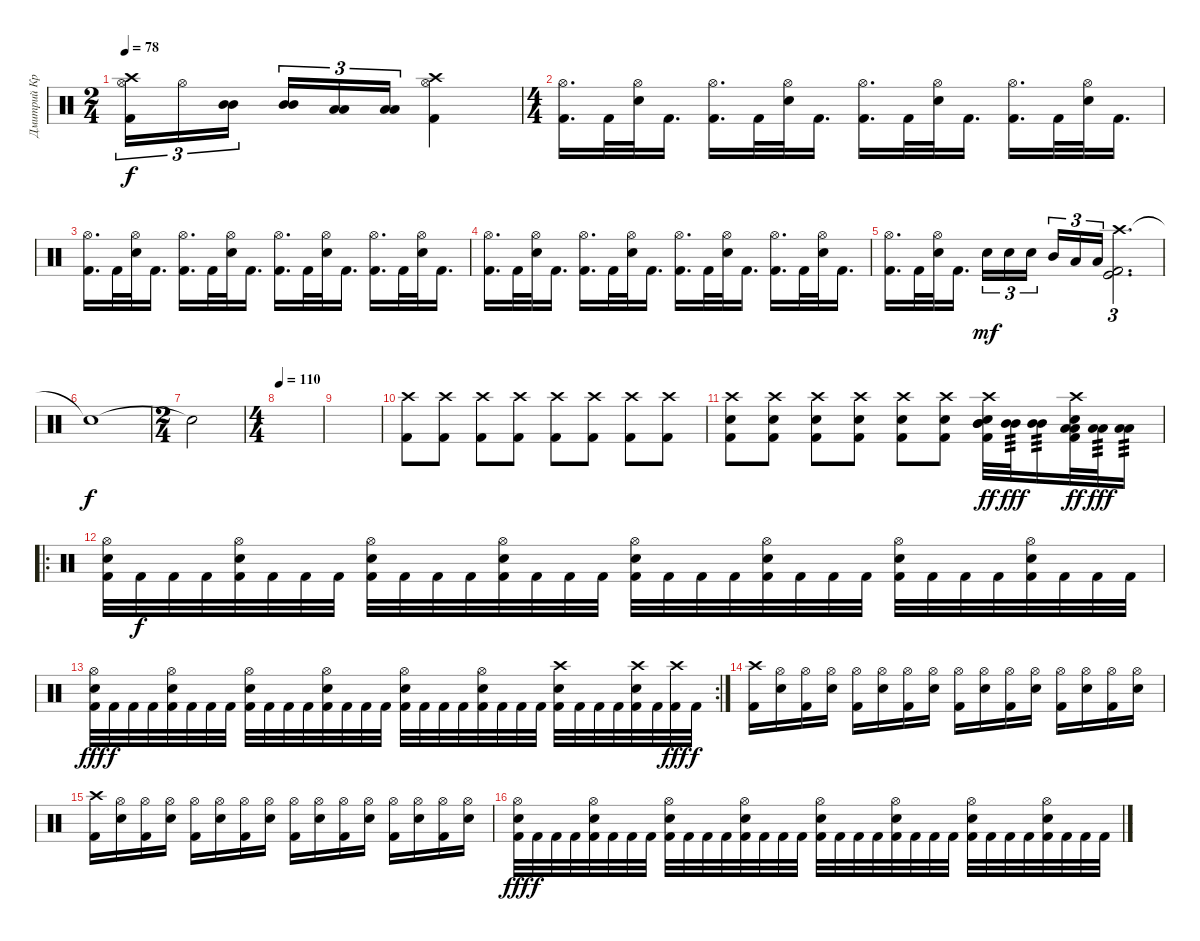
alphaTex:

\track ("Дмитрий Кривенков" "Дмитрий Кр") {instrument percussion}
\staff {score}
\articulation defaults
\ts (2 4)
\tempo 78
\clef neutral
\ks c
("Crash high (hit)" "Hi-Hat (open)" "Kick (hit) 2").16{tu (3 2) dy f} "Hi-Hat (open)".16{tu (3 2)} ("Mid Tom (hit)" "Mid Tom (hit)").16{tu (3 2) beam splitsecondary} ("Mid Tom (hit)" "Mid Tom (hit)").16{tu (3 2)} ("Low Tom (hit)" "Low Tom (hit)").16{tu (3 2)} ("Low Tom (hit)" "Low Tom (hit)").16{tu (3 2)} ("Crash high (hit)" "Hi-Hat (open)" "Kick (hit) 2").4 |
\ts (4 4)
("Hi-Hat (open)" "Kick (hit) 2").16{d} "Kick (hit) 2".32 ("Hi-Hat (open)" "Electric Snare (hit)").32 "Kick (hit) 2".16{d} ("Hi-Hat (open)" "Kick (hit) 2").16{d} "Kick (hit) 2".32 ("Hi-Hat (open)" "Electric Snare (hit)").32 "Kick (hit) 2".16{d} ("Hi-Hat (open)" "Kick (hit) 2").16{d} "Kick (hit) 2".32 ("Hi-Hat (open)" "Electric Snare (hit)").32 "Kick (hit) 2".16{d} ("Hi-Hat (open)" "Kick (hit) 2").16{d} "Kick (hit) 2".32 ("Hi-Hat (open)" "Electric Snare (hit)").32 "Kick (hit) 2".16{d} |
("Hi-Hat (open)" "Kick (hit) 2").16{d} "Kick (hit) 2".32 ("Hi-Hat (open)" "Electric Snare (hit)").32 "Kick (hit) 2".16{d} ("Hi-Hat (open)" "Kick (hit) 2").16{d} "Kick (hit) 2".32 ("Hi-Hat (open)" "Electric Snare (hit)").32 "Kick (hit) 2".16{d} ("Hi-Hat (open)" "Kick (hit) 2").16{d} "Kick (hit) 2".32 ("Hi-Hat (open)" "Electric Snare (hit)").32 "Kick (hit) 2".16{d} ("Hi-Hat (open)" "Kick (hit) 2").16{d} "Kick (hit) 2".32 ("Hi-Hat (open)" "Electric Snare (hit)").32 "Kick (hit) 2".16{d} |
("Hi-Hat (open)" "Kick (hit) 2").16{d} "Kick (hit) 2".32 ("Hi-Hat (open)" "Electric Snare (hit)").32 "Kick (hit) 2".16{d} ("Hi-Hat (open)" "Kick (hit) 2").16{d} "Kick (hit) 2".32 ("Hi-Hat (open)" "Electric Snare (hit)").32 "Kick (hit) 2".16{d} ("Hi-Hat (open)" "Kick (hit) 2").16{d} "Kick (hit) 2".32 ("Hi-Hat (open)" "Electric Snare (hit)").32 "Kick (hit) 2".16{d} ("Hi-Hat (open)" "Kick (hit) 2").16{d} "Kick (hit) 2".32 ("Hi-Hat (open)" "Electric Snare (hit)").32 "Kick (hit) 2".16{d} |
("Hi-Hat (open)" "Kick (hit) 2").16{d} "Kick (hit) 2".32 ("Hi-Hat (open)" "Electric Snare (hit)").32 "Kick (hit) 2".16{d} "Electric Snare (hit)".16{tu (3 2) dy mf} "Electric Snare (hit)".16{tu (3 2)} "Electric Snare (hit)".16{tu (3 2) beam splitsecondary} "Mid Tom (hit)".16{tu (3 2)} "Low Tom (hit)".16{tu (3 2)} "Low Tom (hit)".16{tu (3 2)} ("Crash high (hit)" "Kick (hit)" "Kick (hit) 2").2{d tu (3 2)} |
"Snare (hit)"{t}.1{dy f} |
\ts (2 4)
"Snare (hit)"{t}.2 |
\ts (4 4)
\tempo 110
|
|
("Crash high (hit)" "Kick (hit) 2").8{volume 11} ("Crash high (hit)" "Kick (hit) 2").8 ("Crash high (hit)" "Kick (hit) 2").8 ("Crash high (hit)" "Kick (hit) 2").8 ("Crash high (hit)" "Kick (hit) 2").8 ("Crash high (hit)" "Kick (hit) 2").8 ("Crash high (hit)" "Kick (hit) 2").8 ("Crash high (hit)" "Kick (hit) 2").8 |
("Crash high (hit)" "Electric Snare (hit)" "Kick (hit) 2").8 ("Crash high (hit)" "Electric Snare (hit)" "Kick (hit) 2").8 ("Crash high (hit)" "Electric Snare (hit)" "Kick (hit) 2").8 ("Crash high (hit)" "Electric Snare (hit)" "Kick (hit) 2").8 ("Crash high (hit)" "Electric Snare (hit)" "Kick (hit) 2").8 ("Crash high (hit)" "Electric Snare (hit)" "Kick (hit) 2").8 ("Crash high (hit)" "Mid Tom (hit)" "Electric Snare (hit)" "Mid Tom (hit)" "Kick (hit) 2").32{dy ff} ("Mid Tom (hit)" "Mid Tom (hit)").32{tp 3 dy fff} ("Mid Tom (hit)" "Mid Tom (hit)").16{tp 3} ("Crash high (hit)" "Low Tom (hit)" "Electric Snare (hit)" "Low Tom (hit)" "Kick (hit) 2").32{dy ff} ("Low Tom (hit)" "Low Tom (hit)").32{tp 3 dy fff} ("Low Tom (hit)" "Low Tom (hit)").16{tp 3} |
\ro
("Hi-Hat (open)" "Electric Snare (hit)" "Kick (hit) 2").32 "Kick (hit) 2".32{dy f} "Kick (hit) 2".32 "Kick (hit) 2".32 ("Hi-Hat (open)" "Electric Snare (hit)" "Kick (hit) 2").32 "Kick (hit) 2".32 "Kick (hit) 2".32 "Kick (hit) 2".32 ("Hi-Hat (open)" "Electric Snare (hit)" "Kick (hit) 2").32 "Kick (hit) 2".32 "Kick (hit) 2".32 "Kick (hit) 2".32 ("Hi-Hat (open)" "Electric Snare (hit)" "Kick (hit) 2").32 "Kick (hit) 2".32 "Kick (hit) 2".32 "Kick (hit) 2".32 ("Hi-Hat (open)" "Electric Snare (hit)" "Kick (hit) 2").32 "Kick (hit) 2".32 "Kick (hit) 2".32 "Kick (hit) 2".32 ("Hi-Hat (open)" "Electric Snare (hit)" "Kick (hit) 2").32 "Kick (hit) 2".32 "Kick (hit) 2".32 "Kick (hit) 2".32 ("Hi-Hat (open)" "Electric Snare (hit)" "Kick (hit) 2").32 "Kick (hit) 2".32 "Kick (hit) 2".32 "Kick (hit) 2".32 ("Hi-Hat (open)" "Electric Snare (hit)" "Kick (hit) 2").32 "Kick (hit) 2".32 "Kick (hit) 2".32 "Kick (hit) 2".32 |
\rc 2
("Hi-Hat (open)" "Electric Snare (hit)" "Kick (hit) 2").32{dy fff} "Kick (hit) 2".32{dy f} "Kick (hit) 2".32 "Kick (hit) 2".32 ("Hi-Hat (open)" "Electric Snare (hit)" "Kick (hit) 2").32 "Kick (hit) 2".32 "Kick (hit) 2".32 "Kick (hit) 2".32 ("Hi-Hat (open)" "Electric Snare (hit)" "Kick (hit) 2").32 "Kick (hit) 2".32 "Kick (hit) 2".32 "Kick (hit) 2".32 ("Hi-Hat (open)" "Electric Snare (hit)" "Kick (hit) 2").32 "Kick (hit) 2".32 "Kick (hit) 2".32 "Kick (hit) 2".32 ("Hi-Hat (open)" "Electric Snare (hit)" "Kick (hit) 2").32 "Kick (hit) 2".32 "Kick (hit) 2".32 "Kick (hit) 2".32 ("Hi-Hat (open)" "Electric Snare (hit)" "Kick (hit) 2").32 "Kick (hit) 2".32 "Kick (hit) 2".32 "Kick (hit) 2".32 ("Crash high (hit)" "Electric Snare (hit)" "Kick (hit) 2").32 "Kick (hit) 2".32 "Kick (hit) 2".32 "Kick (hit) 2".32 ("Crash high (hit)" "Electric Snare (hit)" "Kick (hit) 2").32 "Kick (hit) 2".32 ("Crash high (hit)" "Kick (hit) 2").32{dy fff} "Kick (hit) 2".32{dy f} |
("Crash high (hit)" "Kick (hit) 2").16 ("Hi-Hat (open)" "Electric Snare (hit)").16 ("Hi-Hat (open)" "Kick (hit) 2").16 ("Hi-Hat (open)" "Electric Snare (hit)").16 ("Hi-Hat (open)" "Kick (hit) 2").16 ("Hi-Hat (open)" "Electric Snare (hit)").16 ("Hi-Hat (open)" "Kick (hit) 2").16 ("Hi-Hat (open)" "Electric Snare (hit)").16 ("Hi-Hat (open)" "Kick (hit) 2").16 ("Hi-Hat (open)" "Electric Snare (hit)").16 ("Hi-Hat (open)" "Kick (hit) 2").16 ("Hi-Hat (open)" "Electric Snare (hit)").16 ("Hi-Hat (open)" "Kick (hit) 2").16 ("Hi-Hat (open)" "Electric Snare (hit)").16 ("Hi-Hat (open)" "Kick (hit) 2").16 ("Hi-Hat (open)" "Electric Snare (hit)").16 |
("Crash high (hit)" "Kick (hit) 2").16 ("Hi-Hat (open)" "Electric Snare (hit)").16 ("Hi-Hat (open)" "Kick (hit) 2").16 ("Hi-Hat (open)" "Electric Snare (hit)").16 ("Hi-Hat (open)" "Kick (hit) 2").16 ("Hi-Hat (open)" "Electric Snare (hit)").16 ("Hi-Hat (open)" "Kick (hit) 2").16 ("Hi-Hat (open)" "Electric Snare (hit)").16 ("Hi-Hat (open)" "Kick (hit) 2").16 ("Hi-Hat (open)" "Electric Snare (hit)").16 ("Hi-Hat (open)" "Kick (hit) 2").16 ("Hi-Hat (open)" "Electric Snare (hit)").16 ("Hi-Hat (open)" "Kick (hit) 2").16 ("Hi-Hat (open)" "Electric Snare (hit)").16 ("Hi-Hat (open)" "Kick (hit) 2").16 ("Hi-Hat (open)" "Electric Snare (hit)").16 |
("Hi-Hat (open)" "Electric Snare (hit)" "Kick (hit) 2").32{dy fff} "Kick (hit) 2".32{dy f} "Kick (hit) 2".32 "Kick (hit) 2".32 ("Hi-Hat (open)" "Electric Snare (hit)" "Kick (hit) 2").32 "Kick (hit) 2".32 "Kick (hit) 2".32 "Kick (hit) 2".32 ("Hi-Hat (open)" "Electric Snare (hit)" "Kick (hit) 2").32 "Kick (hit) 2".32 "Kick (hit) 2".32 "Kick (hit) 2".32 ("Hi-Hat (open)" "Electric Snare (hit)" "Kick (hit) 2").32 "Kick (hit) 2".32 "Kick (hit) 2".32 "Kick (hit) 2".32 ("Hi-Hat (open)" "Electric Snare (hit)" "Kick (hit) 2").32 "Kick (hit) 2".32 "Kick (hit) 2".32 "Kick (hit) 2".32 ("Hi-Hat (open)" "Electric Snare (hit)" "Kick (hit) 2").32 "Kick (hit) 2".32 "Kick (hit) 2".32 "Kick (hit) 2".32 ("Hi-Hat (open)" "Electric Snare (hit)" "Kick (hit) 2").32 "Kick (hit) 2".32 "Kick (hit) 2".32 "Kick (hit) 2".32 ("Hi-Hat (open)" "Electric Snare (hit)" "Kick (hit) 2").32 "Kick (hit) 2".32 "Kick (hit) 2".32 "Kick (hit) 2".32
